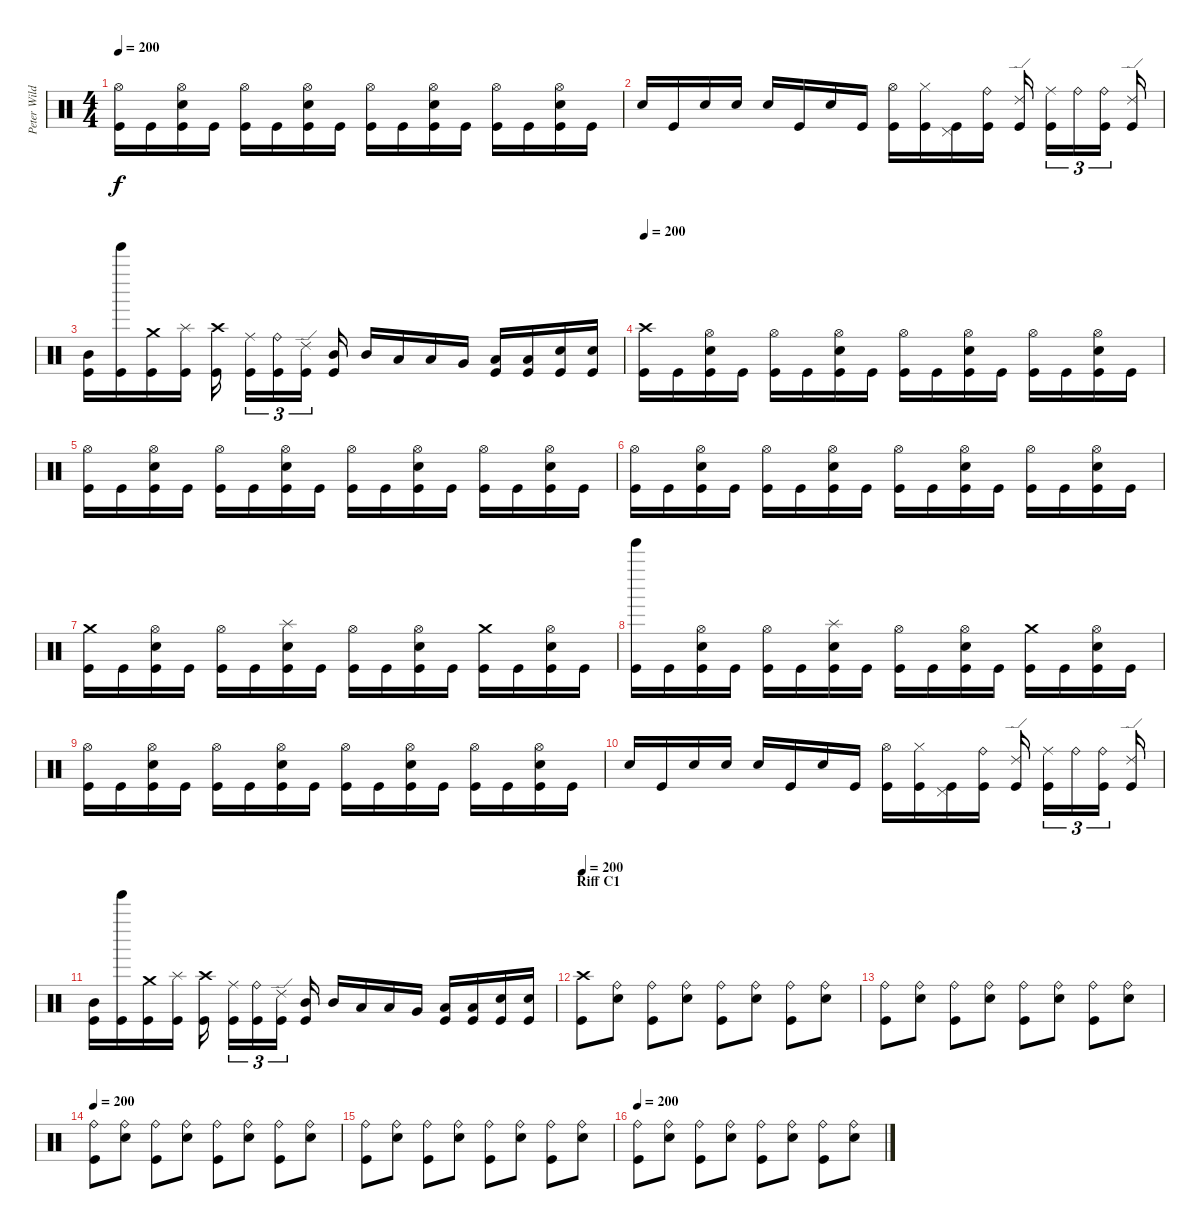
\track ("Peter Wildoer " "Peter Wild") {instrument percussion}
\staff {score}
\articulation defaults
\ts (4 4)
\tempo 200
\clef neutral
\ks c
("Hi-Hat (open)" "Kick (hit)").16{dy f} "Kick (hit)".16 ("Hi-Hat (open)" "Electric Snare (hit)" "Kick (hit)").16 "Kick (hit)".16 ("Hi-Hat (open)" "Kick (hit)").16 "Kick (hit)".16 ("Hi-Hat (open)" "Electric Snare (hit)" "Kick (hit)").16 "Kick (hit)".16 ("Hi-Hat (open)" "Kick (hit)").16 "Kick (hit)".16 ("Hi-Hat (open)" "Electric Snare (hit)" "Kick (hit)").16 "Kick (hit)".16 ("Hi-Hat (open)" "Kick (hit)").16 "Kick (hit)".16 ("Hi-Hat (open)" "Electric Snare (hit)" "Kick (hit)").16 "Kick (hit)".16 |
"Electric Snare (hit)".16 "Kick (hit)".16 "Electric Snare (hit)".16 "Electric Snare (hit)".16 "Electric Snare (hit)".16 "Kick (hit)".16 "Electric Snare (hit)".16 "Kick (hit)".16 ("Hi-Hat (open)" "Kick (hit)").16 ("Hi-Hat (closed)" "Kick (hit)").16 ("Pedal Hi-Hat (hit)" "Kick (hit)").16 ("Ride (bell)" "Kick (hit)").16 ("Ride (edge) 2" "Kick (hit)").16 ("Ride (middle)" "Kick (hit)").16{tu (3 2)} "Ride (bell)".16{tu (3 2)} ("Ride (bell)" "Kick (hit)").16{tu (3 2)} ("Ride (edge) 2" "Kick (hit)").16 |
("Mid Tom (hit)" "Kick (hit)").16 ("Tinkle Bell (hit)" "Kick (hit)").16 ("Crash medium (hit)" "Kick (hit)").16 ("Splash (hit)" "Kick (hit)").16 ("Crash high (hit)" "Kick (hit)").16 ("Ride (middle)" "Kick (hit)").16{tu (3 2)} ("Ride (bell)" "Kick (hit)").16{tu (3 2)} ("Ride (edge) 2" "Kick (hit)").16{tu (3 2)} ("Mid Tom (hit)" "Kick (hit)").16 "Mid Tom (hit)".16 "Low Tom (hit)".16 "Low Tom (hit)".16 "Very Low Tom (hit)".16 ("Low Floor Tom (hit)" "Kick (hit)").16 ("Low Floor Tom (hit)" "Kick (hit)").16 ("Electric Snare (hit)" "Kick (hit)").16 ("Electric Snare (hit)" "Kick (hit)").16 |
\tempo 200
("Crash high (hit)" "Kick (hit)").16 "Kick (hit)".16 ("Hi-Hat (open)" "Electric Snare (hit)" "Kick (hit)").16 "Kick (hit)".16 ("Hi-Hat (open)" "Kick (hit)").16 "Kick (hit)".16 ("Hi-Hat (open)" "Electric Snare (hit)" "Kick (hit)").16 "Kick (hit)".16 ("Hi-Hat (open)" "Kick (hit)").16 "Kick (hit)".16 ("Hi-Hat (open)" "Electric Snare (hit)" "Kick (hit)").16 "Kick (hit)".16 ("Hi-Hat (open)" "Kick (hit)").16 "Kick (hit)".16 ("Hi-Hat (open)" "Electric Snare (hit)" "Kick (hit)").16 "Kick (hit)".16 |
("Hi-Hat (open)" "Kick (hit)").16 "Kick (hit)".16 ("Hi-Hat (open)" "Electric Snare (hit)" "Kick (hit)").16 "Kick (hit)".16 ("Hi-Hat (open)" "Kick (hit)").16 "Kick (hit)".16 ("Hi-Hat (open)" "Electric Snare (hit)" "Kick (hit)").16 "Kick (hit)".16 ("Hi-Hat (open)" "Kick (hit)").16 "Kick (hit)".16 ("Hi-Hat (open)" "Electric Snare (hit)" "Kick (hit)").16 "Kick (hit)".16 ("Hi-Hat (open)" "Kick (hit)").16 "Kick (hit)".16 ("Hi-Hat (open)" "Electric Snare (hit)" "Kick (hit)").16 "Kick (hit)".16 |
("Hi-Hat (open)" "Kick (hit)").16 "Kick (hit)".16 ("Hi-Hat (open)" "Electric Snare (hit)" "Kick (hit)").16 "Kick (hit)".16 ("Hi-Hat (open)" "Kick (hit)").16 "Kick (hit)".16 ("Hi-Hat (open)" "Electric Snare (hit)" "Kick (hit)").16 "Kick (hit)".16 ("Hi-Hat (open)" "Kick (hit)").16 "Kick (hit)".16 ("Hi-Hat (open)" "Electric Snare (hit)" "Kick (hit)").16 "Kick (hit)".16 ("Hi-Hat (open)" "Kick (hit)").16 "Kick (hit)".16 ("Hi-Hat (open)" "Electric Snare (hit)" "Kick (hit)").16 "Kick (hit)".16 |
("Crash medium (hit)" "Kick (hit)").16 "Kick (hit)".16 ("Hi-Hat (open)" "Electric Snare (hit)" "Kick (hit)").16 "Kick (hit)".16 ("Hi-Hat (open)" "Kick (hit)").16 "Kick (hit)".16 ("Splash (hit)" "Electric Snare (hit)" "Kick (hit)").16 "Kick (hit)".16 ("Hi-Hat (open)" "Kick (hit)").16 "Kick (hit)".16 ("Hi-Hat (open)" "Electric Snare (hit)" "Kick (hit)").16 "Kick (hit)".16 ("Crash medium (hit)" "Kick (hit)").16 "Kick (hit)".16 ("Hi-Hat (open)" "Electric Snare (hit)" "Kick (hit)").16 "Kick (hit)".16 |
("Tinkle Bell (hit)" "Kick (hit)").16 "Kick (hit)".16 ("Hi-Hat (open)" "Electric Snare (hit)" "Kick (hit)").16 "Kick (hit)".16 ("Hi-Hat (open)" "Kick (hit)").16 "Kick (hit)".16 ("Splash (hit)" "Electric Snare (hit)" "Kick (hit)").16 "Kick (hit)".16 ("Hi-Hat (open)" "Kick (hit)").16 "Kick (hit)".16 ("Hi-Hat (open)" "Electric Snare (hit)" "Kick (hit)").16 "Kick (hit)".16 ("Crash medium (hit)" "Kick (hit)").16 "Kick (hit)".16 ("Hi-Hat (open)" "Electric Snare (hit)" "Kick (hit)").16 "Kick (hit)".16 |
("Hi-Hat (open)" "Kick (hit)").16 "Kick (hit)".16 ("Hi-Hat (open)" "Electric Snare (hit)" "Kick (hit)").16 "Kick (hit)".16 ("Hi-Hat (open)" "Kick (hit)").16 "Kick (hit)".16 ("Hi-Hat (open)" "Electric Snare (hit)" "Kick (hit)").16 "Kick (hit)".16 ("Hi-Hat (open)" "Kick (hit)").16 "Kick (hit)".16 ("Hi-Hat (open)" "Electric Snare (hit)" "Kick (hit)").16 "Kick (hit)".16 ("Hi-Hat (open)" "Kick (hit)").16 "Kick (hit)".16 ("Hi-Hat (open)" "Electric Snare (hit)" "Kick (hit)").16 "Kick (hit)".16 |
"Electric Snare (hit)".16 "Kick (hit)".16 "Electric Snare (hit)".16 "Electric Snare (hit)".16 "Electric Snare (hit)".16 "Kick (hit)".16 "Electric Snare (hit)".16 "Kick (hit)".16 ("Hi-Hat (open)" "Kick (hit)").16 ("Hi-Hat (closed)" "Kick (hit)").16 ("Pedal Hi-Hat (hit)" "Kick (hit)").16 ("Ride (bell)" "Kick (hit)").16 ("Ride (edge) 2" "Kick (hit)").16 ("Ride (middle)" "Kick (hit)").16{tu (3 2)} "Ride (bell)".16{tu (3 2)} ("Ride (bell)" "Kick (hit)").16{tu (3 2)} ("Ride (edge) 2" "Kick (hit)").16 |
("Mid Tom (hit)" "Kick (hit)").16 ("Tinkle Bell (hit)" "Kick (hit)").16 ("Crash medium (hit)" "Kick (hit)").16 ("Splash (hit)" "Kick (hit)").16 ("Crash high (hit)" "Kick (hit)").16 ("Ride (middle)" "Kick (hit)").16{tu (3 2)} ("Ride (bell)" "Kick (hit)").16{tu (3 2)} ("Ride (edge) 2" "Kick (hit)").16{tu (3 2)} ("Mid Tom (hit)" "Kick (hit)").16 "Mid Tom (hit)".16 "Low Tom (hit)".16 "Low Tom (hit)".16 "Very Low Tom (hit)".16 ("Low Floor Tom (hit)" "Kick (hit)").16 ("Low Floor Tom (hit)" "Kick (hit)").16 ("Electric Snare (hit)" "Kick (hit)").16 ("Electric Snare (hit)" "Kick (hit)").16 |
\section ("" "Riff C1")
\tempo 200
("Crash high (hit)" "Kick (hit)").8 ("Ride (bell)" "Electric Snare (hit)").8 ("Ride (bell)" "Kick (hit)").8 ("Ride (bell)" "Electric Snare (hit)").8 ("Ride (bell)" "Kick (hit)").8 ("Ride (bell)" "Electric Snare (hit)").8 ("Ride (bell)" "Kick (hit)").8 ("Ride (bell)" "Electric Snare (hit)").8 |
("Ride (bell)" "Kick (hit)").8 ("Ride (bell)" "Electric Snare (hit)").8 ("Ride (bell)" "Kick (hit)").8 ("Ride (bell)" "Electric Snare (hit)").8 ("Ride (bell)" "Kick (hit)").8 ("Ride (bell)" "Electric Snare (hit)").8 ("Ride (bell)" "Kick (hit)").8 ("Ride (bell)" "Electric Snare (hit)").8 |
\tempo 200
("Ride (bell)" "Kick (hit)").8 ("Ride (bell)" "Electric Snare (hit)").8 ("Ride (bell)" "Kick (hit)").8 ("Ride (bell)" "Electric Snare (hit)").8 ("Ride (bell)" "Kick (hit)").8 ("Ride (bell)" "Electric Snare (hit)").8 ("Ride (bell)" "Kick (hit)").8 ("Ride (bell)" "Electric Snare (hit)").8 |
("Ride (bell)" "Kick (hit)").8 ("Ride (bell)" "Electric Snare (hit)").8 ("Ride (bell)" "Kick (hit)").8 ("Ride (bell)" "Electric Snare (hit)").8 ("Ride (bell)" "Kick (hit)").8 ("Ride (bell)" "Electric Snare (hit)").8 ("Ride (bell)" "Kick (hit)").8 ("Ride (bell)" "Electric Snare (hit)").8 |
\tempo 200
("Ride (bell)" "Kick (hit)").8 ("Ride (bell)" "Electric Snare (hit)").8 ("Ride (bell)" "Kick (hit)").8 ("Ride (bell)" "Electric Snare (hit)").8 ("Ride (bell)" "Kick (hit)").8 ("Ride (bell)" "Electric Snare (hit)").8 ("Ride (bell)" "Kick (hit)").8 ("Ride (bell)" "Electric Snare (hit)").8
